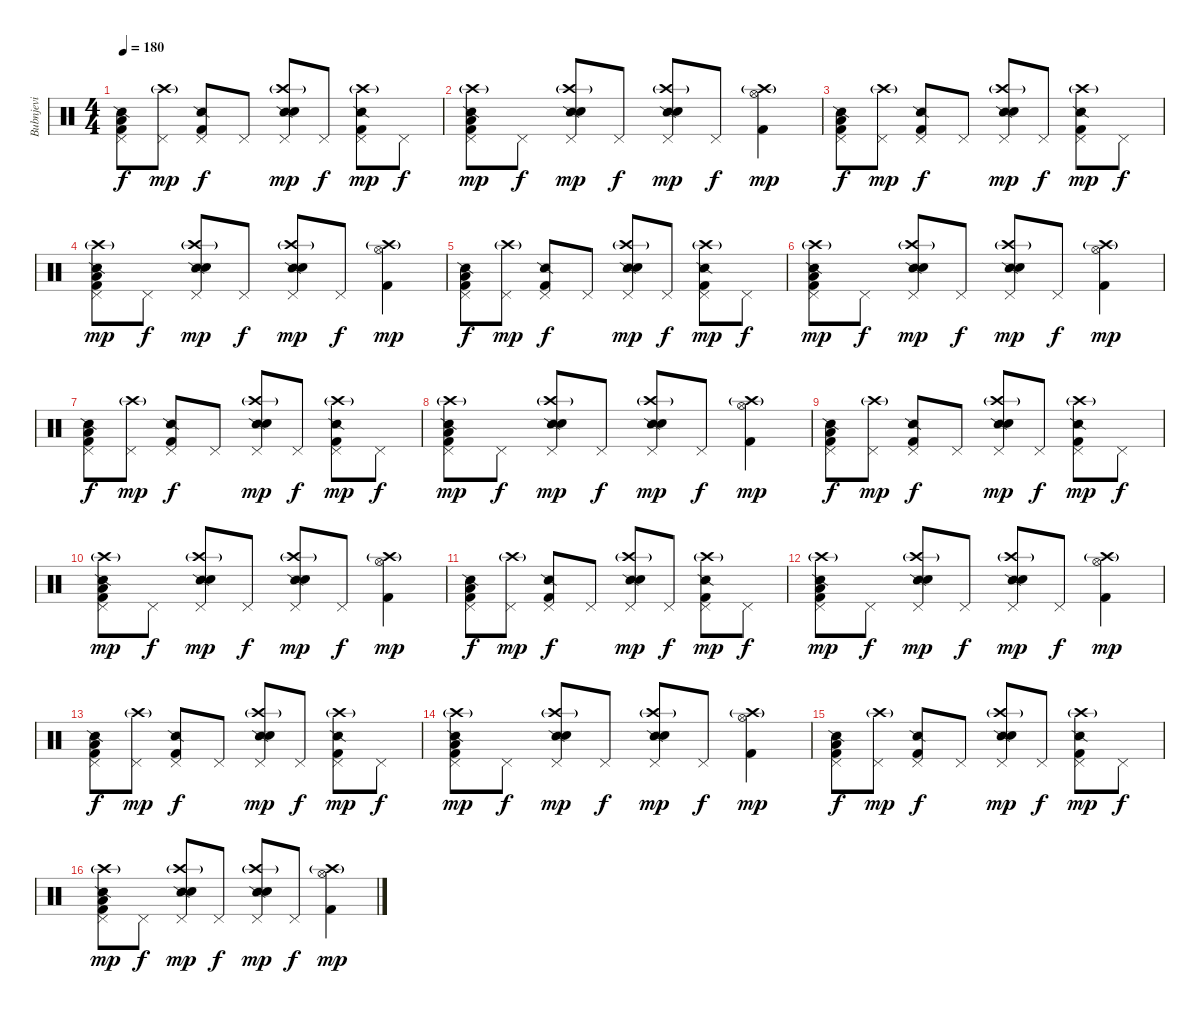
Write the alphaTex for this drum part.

\track ("Bubnjevi" "Bubnjevi") {instrument percussion}
\staff {score}
\articulation defaults
\ts (4 4)
\tempo 180
\clef neutral
\ks c
("Snare (side stick) 2" "Pedal Hi-Hat (hit)" "Low Tom (hit)" "Kick (hit) 2").8{dy f} ("Crash high (hit)"{g} "Pedal Hi-Hat (hit)").8{dy mp} ("Snare (side stick) 2" "Pedal Hi-Hat (hit)" "Kick (hit) 2").8{dy f} "Pedal Hi-Hat (hit)".8 ("Crash high (hit)"{g} "Snare (side stick) 2" "Pedal Hi-Hat (hit)" "Electric Snare (hit)").8{dy mp} "Pedal Hi-Hat (hit)".8{dy f} ("Crash high (hit)"{g} "Snare (side stick) 2" "Pedal Hi-Hat (hit)" "Kick (hit) 2").8{dy mp} "Pedal Hi-Hat (hit)".8{dy f} |
("Crash high (hit)"{g} "Snare (side stick) 2" "Pedal Hi-Hat (hit)" "Low Tom (hit)" "Kick (hit) 2").8{dy mp} "Pedal Hi-Hat (hit)".8{dy f} ("Crash high (hit)"{g} "Snare (side stick) 2" "Pedal Hi-Hat (hit)" "Hand Clap (hit)").8{dy mp} "Pedal Hi-Hat (hit)".8{dy f} ("Crash high (hit)"{g} "Snare (side stick) 2" "Pedal Hi-Hat (hit)" "Electric Snare (hit)").8{dy mp} "Pedal Hi-Hat (hit)".8{dy f} ("Crash high (hit)"{g} "Hi-Hat (open)" "Kick (hit) 2").4{dy mp} |
("Snare (side stick) 2" "Pedal Hi-Hat (hit)" "Low Tom (hit)" "Kick (hit) 2").8{dy f} ("Crash high (hit)"{g} "Pedal Hi-Hat (hit)").8{dy mp} ("Snare (side stick) 2" "Pedal Hi-Hat (hit)" "Kick (hit) 2").8{dy f} "Pedal Hi-Hat (hit)".8 ("Crash high (hit)"{g} "Snare (side stick) 2" "Pedal Hi-Hat (hit)" "Electric Snare (hit)").8{dy mp} "Pedal Hi-Hat (hit)".8{dy f} ("Crash high (hit)"{g} "Snare (side stick) 2" "Pedal Hi-Hat (hit)" "Kick (hit) 2").8{dy mp} "Pedal Hi-Hat (hit)".8{dy f} |
("Crash high (hit)"{g} "Snare (side stick) 2" "Pedal Hi-Hat (hit)" "Low Tom (hit)" "Kick (hit) 2").8{dy mp} "Pedal Hi-Hat (hit)".8{dy f} ("Crash high (hit)"{g} "Snare (side stick) 2" "Pedal Hi-Hat (hit)" "Hand Clap (hit)").8{dy mp} "Pedal Hi-Hat (hit)".8{dy f} ("Crash high (hit)"{g} "Snare (side stick) 2" "Pedal Hi-Hat (hit)" "Electric Snare (hit)").8{dy mp} "Pedal Hi-Hat (hit)".8{dy f} ("Crash high (hit)"{g} "Hi-Hat (open)" "Kick (hit) 2").4{dy mp} |
("Snare (side stick) 2" "Pedal Hi-Hat (hit)" "Low Tom (hit)" "Kick (hit) 2").8{dy f} ("Crash high (hit)"{g} "Pedal Hi-Hat (hit)").8{dy mp} ("Snare (side stick) 2" "Pedal Hi-Hat (hit)" "Kick (hit) 2").8{dy f} "Pedal Hi-Hat (hit)".8 ("Crash high (hit)"{g} "Snare (side stick) 2" "Pedal Hi-Hat (hit)" "Electric Snare (hit)").8{dy mp} "Pedal Hi-Hat (hit)".8{dy f} ("Crash high (hit)"{g} "Snare (side stick) 2" "Pedal Hi-Hat (hit)" "Kick (hit) 2").8{dy mp} "Pedal Hi-Hat (hit)".8{dy f} |
("Crash high (hit)"{g} "Snare (side stick) 2" "Pedal Hi-Hat (hit)" "Low Tom (hit)" "Kick (hit) 2").8{dy mp} "Pedal Hi-Hat (hit)".8{dy f} ("Crash high (hit)"{g} "Snare (side stick) 2" "Pedal Hi-Hat (hit)" "Hand Clap (hit)").8{dy mp} "Pedal Hi-Hat (hit)".8{dy f} ("Crash high (hit)"{g} "Snare (side stick) 2" "Pedal Hi-Hat (hit)" "Electric Snare (hit)").8{dy mp} "Pedal Hi-Hat (hit)".8{dy f} ("Crash high (hit)"{g} "Hi-Hat (open)" "Kick (hit) 2").4{dy mp} |
("Snare (side stick) 2" "Pedal Hi-Hat (hit)" "Low Tom (hit)" "Kick (hit) 2").8{dy f} ("Crash high (hit)"{g} "Pedal Hi-Hat (hit)").8{dy mp} ("Snare (side stick) 2" "Pedal Hi-Hat (hit)" "Kick (hit) 2").8{dy f} "Pedal Hi-Hat (hit)".8 ("Crash high (hit)"{g} "Snare (side stick) 2" "Pedal Hi-Hat (hit)" "Electric Snare (hit)").8{dy mp} "Pedal Hi-Hat (hit)".8{dy f} ("Crash high (hit)"{g} "Snare (side stick) 2" "Pedal Hi-Hat (hit)" "Kick (hit) 2").8{dy mp} "Pedal Hi-Hat (hit)".8{dy f} |
("Crash high (hit)"{g} "Snare (side stick) 2" "Pedal Hi-Hat (hit)" "Low Tom (hit)" "Kick (hit) 2").8{dy mp} "Pedal Hi-Hat (hit)".8{dy f} ("Crash high (hit)"{g} "Snare (side stick) 2" "Pedal Hi-Hat (hit)" "Hand Clap (hit)").8{dy mp} "Pedal Hi-Hat (hit)".8{dy f} ("Crash high (hit)"{g} "Snare (side stick) 2" "Pedal Hi-Hat (hit)" "Electric Snare (hit)").8{dy mp} "Pedal Hi-Hat (hit)".8{dy f} ("Crash high (hit)"{g} "Hi-Hat (open)" "Kick (hit) 2").4{dy mp} |
("Snare (side stick) 2" "Pedal Hi-Hat (hit)" "Low Tom (hit)" "Kick (hit) 2").8{dy f} ("Crash high (hit)"{g} "Pedal Hi-Hat (hit)").8{dy mp} ("Snare (side stick) 2" "Pedal Hi-Hat (hit)" "Kick (hit) 2").8{dy f} "Pedal Hi-Hat (hit)".8 ("Crash high (hit)"{g} "Snare (side stick) 2" "Pedal Hi-Hat (hit)" "Electric Snare (hit)").8{dy mp} "Pedal Hi-Hat (hit)".8{dy f} ("Crash high (hit)"{g} "Snare (side stick) 2" "Pedal Hi-Hat (hit)" "Kick (hit) 2").8{dy mp} "Pedal Hi-Hat (hit)".8{dy f} |
("Crash high (hit)"{g} "Snare (side stick) 2" "Pedal Hi-Hat (hit)" "Low Tom (hit)" "Kick (hit) 2").8{dy mp} "Pedal Hi-Hat (hit)".8{dy f} ("Crash high (hit)"{g} "Snare (side stick) 2" "Pedal Hi-Hat (hit)" "Hand Clap (hit)").8{dy mp} "Pedal Hi-Hat (hit)".8{dy f} ("Crash high (hit)"{g} "Snare (side stick) 2" "Pedal Hi-Hat (hit)" "Electric Snare (hit)").8{dy mp} "Pedal Hi-Hat (hit)".8{dy f} ("Crash high (hit)"{g} "Hi-Hat (open)" "Kick (hit) 2").4{dy mp} |
("Snare (side stick) 2" "Pedal Hi-Hat (hit)" "Low Tom (hit)" "Kick (hit) 2").8{dy f} ("Crash high (hit)"{g} "Pedal Hi-Hat (hit)").8{dy mp} ("Snare (side stick) 2" "Pedal Hi-Hat (hit)" "Kick (hit) 2").8{dy f} "Pedal Hi-Hat (hit)".8 ("Crash high (hit)"{g} "Snare (side stick) 2" "Pedal Hi-Hat (hit)" "Electric Snare (hit)").8{dy mp} "Pedal Hi-Hat (hit)".8{dy f} ("Crash high (hit)"{g} "Snare (side stick) 2" "Pedal Hi-Hat (hit)" "Kick (hit) 2").8{dy mp} "Pedal Hi-Hat (hit)".8{dy f} |
("Crash high (hit)"{g} "Snare (side stick) 2" "Pedal Hi-Hat (hit)" "Low Tom (hit)" "Kick (hit) 2").8{dy mp} "Pedal Hi-Hat (hit)".8{dy f} ("Crash high (hit)"{g} "Snare (side stick) 2" "Pedal Hi-Hat (hit)" "Hand Clap (hit)").8{dy mp} "Pedal Hi-Hat (hit)".8{dy f} ("Crash high (hit)"{g} "Snare (side stick) 2" "Pedal Hi-Hat (hit)" "Electric Snare (hit)").8{dy mp} "Pedal Hi-Hat (hit)".8{dy f} ("Crash high (hit)"{g} "Hi-Hat (open)" "Kick (hit) 2").4{dy mp} |
("Snare (side stick) 2" "Pedal Hi-Hat (hit)" "Low Tom (hit)" "Kick (hit) 2").8{dy f} ("Crash high (hit)"{g} "Pedal Hi-Hat (hit)").8{dy mp} ("Snare (side stick) 2" "Pedal Hi-Hat (hit)" "Kick (hit) 2").8{dy f} "Pedal Hi-Hat (hit)".8 ("Crash high (hit)"{g} "Snare (side stick) 2" "Pedal Hi-Hat (hit)" "Electric Snare (hit)").8{dy mp} "Pedal Hi-Hat (hit)".8{dy f} ("Crash high (hit)"{g} "Snare (side stick) 2" "Pedal Hi-Hat (hit)" "Kick (hit) 2").8{dy mp} "Pedal Hi-Hat (hit)".8{dy f} |
("Crash high (hit)"{g} "Snare (side stick) 2" "Pedal Hi-Hat (hit)" "Low Tom (hit)" "Kick (hit) 2").8{dy mp} "Pedal Hi-Hat (hit)".8{dy f} ("Crash high (hit)"{g} "Snare (side stick) 2" "Pedal Hi-Hat (hit)" "Hand Clap (hit)").8{dy mp} "Pedal Hi-Hat (hit)".8{dy f} ("Crash high (hit)"{g} "Snare (side stick) 2" "Pedal Hi-Hat (hit)" "Electric Snare (hit)").8{dy mp} "Pedal Hi-Hat (hit)".8{dy f} ("Crash high (hit)"{g} "Hi-Hat (open)" "Kick (hit) 2").4{dy mp} |
("Snare (side stick) 2" "Pedal Hi-Hat (hit)" "Low Tom (hit)" "Kick (hit) 2").8{dy f} ("Crash high (hit)"{g} "Pedal Hi-Hat (hit)").8{dy mp} ("Snare (side stick) 2" "Pedal Hi-Hat (hit)" "Kick (hit) 2").8{dy f} "Pedal Hi-Hat (hit)".8 ("Crash high (hit)"{g} "Snare (side stick) 2" "Pedal Hi-Hat (hit)" "Electric Snare (hit)").8{dy mp} "Pedal Hi-Hat (hit)".8{dy f} ("Crash high (hit)"{g} "Snare (side stick) 2" "Pedal Hi-Hat (hit)" "Kick (hit) 2").8{dy mp} "Pedal Hi-Hat (hit)".8{dy f} |
("Crash high (hit)"{g} "Snare (side stick) 2" "Pedal Hi-Hat (hit)" "Low Tom (hit)" "Kick (hit) 2").8{dy mp} "Pedal Hi-Hat (hit)".8{dy f} ("Crash high (hit)"{g} "Snare (side stick) 2" "Pedal Hi-Hat (hit)" "Hand Clap (hit)").8{dy mp} "Pedal Hi-Hat (hit)".8{dy f} ("Crash high (hit)"{g} "Snare (side stick) 2" "Pedal Hi-Hat (hit)" "Electric Snare (hit)").8{dy mp} "Pedal Hi-Hat (hit)".8{dy f} ("Crash high (hit)"{g} "Hi-Hat (open)" "Kick (hit) 2").4{dy mp}
